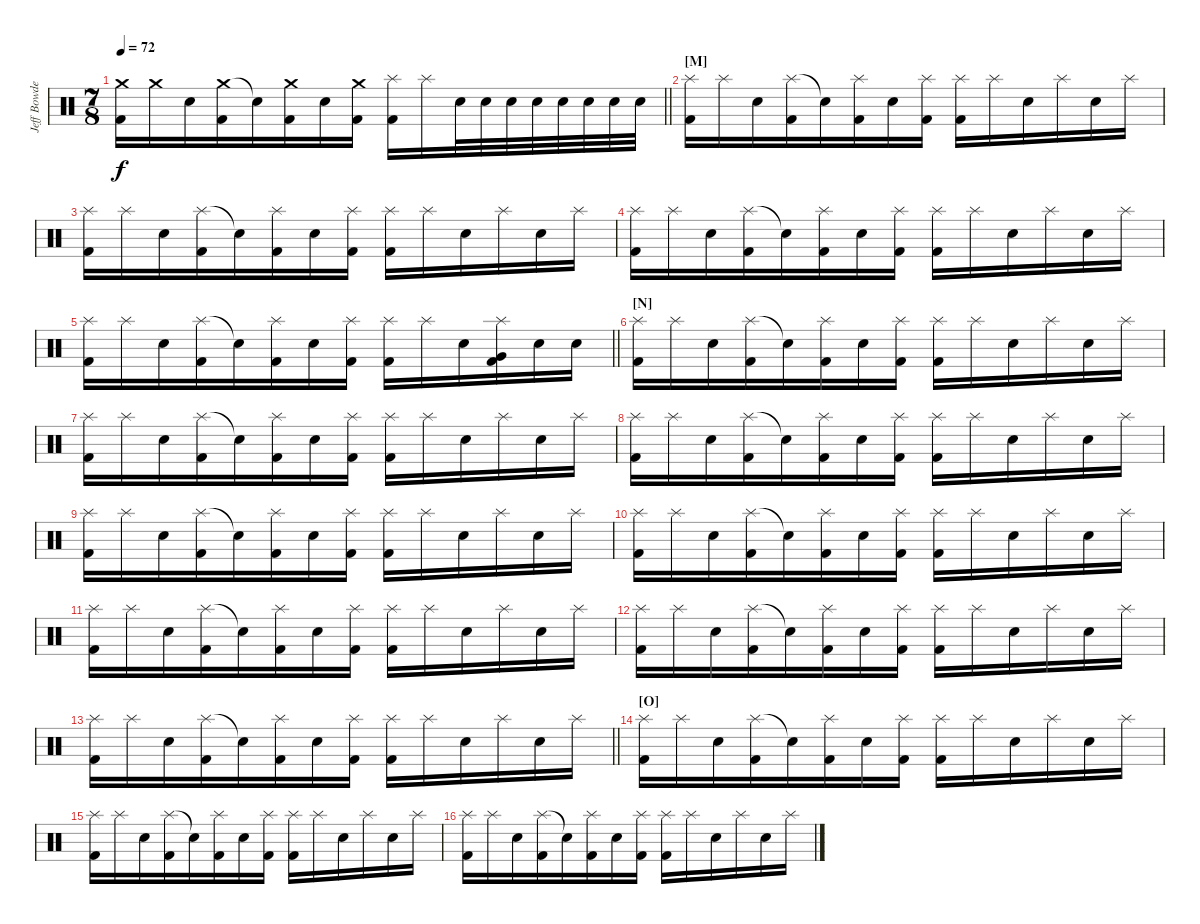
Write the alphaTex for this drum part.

\track ("Jeff Bowders" "Jeff Bowde") {instrument percussion}
\staff {score}
\articulation defaults
\ts (7 8)
\tempo 72
\clef neutral
\barLineRight lightlight
\ks aminor
("Crash medium (hit)" "Kick (hit) 2").16{dy f} "Crash medium (hit)".16 "Electric Snare (hit)".16 ("Crash medium (hit)" "Kick (hit) 2").16 "Snare (hit)"{t}.16 ("Crash medium (hit)" "Kick (hit) 2").16 "Electric Snare (hit)".16 ("Crash medium (hit)" "Kick (hit) 2").16 ("Splash (hit)" "Kick (hit) 2").16 "Splash (hit)".16 "Electric Snare (hit)".32 "Electric Snare (hit)".32 "Electric Snare (hit)".32 "Electric Snare (hit)".32 "Electric Snare (hit)".32 "Electric Snare (hit)".32 "Electric Snare (hit)".32 "Electric Snare (hit)".32 |
\section ("" "[M]")
("Splash (hit)" "Kick (hit) 2").16 "Splash (hit)".16 "Electric Snare (hit)".16 ("Splash (hit)" "Kick (hit) 2").16 "Snare (hit)"{t}.16 ("Splash (hit)" "Kick (hit) 2").16 "Electric Snare (hit)".16 ("Splash (hit)" "Kick (hit) 2").16 ("Splash (hit)" "Kick (hit) 2").16 "Splash (hit)".16 "Electric Snare (hit)".16 "Splash (hit)".16 "Electric Snare (hit)".16 "Splash (hit)".16 |
("Splash (hit)" "Kick (hit) 2").16 "Splash (hit)".16 "Electric Snare (hit)".16 ("Splash (hit)" "Kick (hit) 2").16 "Snare (hit)"{t}.16 ("Splash (hit)" "Kick (hit) 2").16 "Electric Snare (hit)".16 ("Splash (hit)" "Kick (hit) 2").16 ("Splash (hit)" "Kick (hit) 2").16 "Splash (hit)".16 "Electric Snare (hit)".16 "Splash (hit)".16 "Electric Snare (hit)".16 "Splash (hit)".16 |
("Splash (hit)" "Kick (hit) 2").16 "Splash (hit)".16 "Electric Snare (hit)".16 ("Splash (hit)" "Kick (hit) 2").16 "Snare (hit)"{t}.16 ("Splash (hit)" "Kick (hit) 2").16 "Electric Snare (hit)".16 ("Splash (hit)" "Kick (hit) 2").16 ("Splash (hit)" "Kick (hit) 2").16 "Splash (hit)".16 "Electric Snare (hit)".16 "Splash (hit)".16 "Electric Snare (hit)".16 "Splash (hit)".16 |
\barLineRight lightlight
("Splash (hit)" "Kick (hit) 2").16 "Splash (hit)".16 "Electric Snare (hit)".16 ("Splash (hit)" "Kick (hit) 2").16 "Snare (hit)"{t}.16 ("Splash (hit)" "Kick (hit) 2").16 "Electric Snare (hit)".16 ("Splash (hit)" "Kick (hit) 2").16 ("Splash (hit)" "Kick (hit) 2").16 "Splash (hit)".16 "Electric Snare (hit)".16 ("Splash (hit)" "Very Low Tom (hit)" "Kick (hit) 2").16 "Electric Snare (hit)".16 "Electric Snare (hit)".16 |
\section ("" "[N]")
("Splash (hit)" "Kick (hit) 2").16 "Splash (hit)".16 "Electric Snare (hit)".16 ("Splash (hit)" "Kick (hit) 2").16 "Snare (hit)"{t}.16 ("Splash (hit)" "Kick (hit) 2").16 "Electric Snare (hit)".16 ("Splash (hit)" "Kick (hit) 2").16 ("Splash (hit)" "Kick (hit) 2").16 "Splash (hit)".16 "Electric Snare (hit)".16 "Splash (hit)".16 "Electric Snare (hit)".16 "Splash (hit)".16 |
("Splash (hit)" "Kick (hit) 2").16 "Splash (hit)".16 "Electric Snare (hit)".16 ("Splash (hit)" "Kick (hit) 2").16 "Snare (hit)"{t}.16 ("Splash (hit)" "Kick (hit) 2").16 "Electric Snare (hit)".16 ("Splash (hit)" "Kick (hit) 2").16 ("Splash (hit)" "Kick (hit) 2").16 "Splash (hit)".16 "Electric Snare (hit)".16 "Splash (hit)".16 "Electric Snare (hit)".16 "Splash (hit)".16 |
("Splash (hit)" "Kick (hit) 2").16 "Splash (hit)".16 "Electric Snare (hit)".16 ("Splash (hit)" "Kick (hit) 2").16 "Snare (hit)"{t}.16 ("Splash (hit)" "Kick (hit) 2").16 "Electric Snare (hit)".16 ("Splash (hit)" "Kick (hit) 2").16 ("Splash (hit)" "Kick (hit) 2").16 "Splash (hit)".16 "Electric Snare (hit)".16 "Splash (hit)".16 "Electric Snare (hit)".16 "Splash (hit)".16 |
("Splash (hit)" "Kick (hit) 2").16 "Splash (hit)".16 "Electric Snare (hit)".16 ("Splash (hit)" "Kick (hit) 2").16 "Snare (hit)"{t}.16 ("Splash (hit)" "Kick (hit) 2").16 "Electric Snare (hit)".16 ("Splash (hit)" "Kick (hit) 2").16 ("Splash (hit)" "Kick (hit) 2").16 "Splash (hit)".16 "Electric Snare (hit)".16 "Splash (hit)".16 "Electric Snare (hit)".16 "Splash (hit)".16 |
("Splash (hit)" "Kick (hit) 2").16 "Splash (hit)".16 "Electric Snare (hit)".16 ("Splash (hit)" "Kick (hit) 2").16 "Snare (hit)"{t}.16 ("Splash (hit)" "Kick (hit) 2").16 "Electric Snare (hit)".16 ("Splash (hit)" "Kick (hit) 2").16 ("Splash (hit)" "Kick (hit) 2").16 "Splash (hit)".16 "Electric Snare (hit)".16 "Splash (hit)".16 "Electric Snare (hit)".16 "Splash (hit)".16 |
("Splash (hit)" "Kick (hit) 2").16 "Splash (hit)".16 "Electric Snare (hit)".16 ("Splash (hit)" "Kick (hit) 2").16 "Snare (hit)"{t}.16 ("Splash (hit)" "Kick (hit) 2").16 "Electric Snare (hit)".16 ("Splash (hit)" "Kick (hit) 2").16 ("Splash (hit)" "Kick (hit) 2").16 "Splash (hit)".16 "Electric Snare (hit)".16 "Splash (hit)".16 "Electric Snare (hit)".16 "Splash (hit)".16 |
("Splash (hit)" "Kick (hit) 2").16 "Splash (hit)".16 "Electric Snare (hit)".16 ("Splash (hit)" "Kick (hit) 2").16 "Snare (hit)"{t}.16 ("Splash (hit)" "Kick (hit) 2").16 "Electric Snare (hit)".16 ("Splash (hit)" "Kick (hit) 2").16 ("Splash (hit)" "Kick (hit) 2").16 "Splash (hit)".16 "Electric Snare (hit)".16 "Splash (hit)".16 "Electric Snare (hit)".16 "Splash (hit)".16 |
\barLineRight lightlight
("Splash (hit)" "Kick (hit) 2").16 "Splash (hit)".16 "Electric Snare (hit)".16 ("Splash (hit)" "Kick (hit) 2").16 "Snare (hit)"{t}.16 ("Splash (hit)" "Kick (hit) 2").16 "Electric Snare (hit)".16 ("Splash (hit)" "Kick (hit) 2").16 ("Splash (hit)" "Kick (hit) 2").16 "Splash (hit)".16 "Electric Snare (hit)".16 "Splash (hit)".16 "Electric Snare (hit)".16 "Splash (hit)".16 |
\section ("" "[O]")
("Splash (hit)" "Kick (hit) 2").16 "Splash (hit)".16 "Electric Snare (hit)".16 ("Splash (hit)" "Kick (hit) 2").16 "Snare (hit)"{t}.16 ("Splash (hit)" "Kick (hit) 2").16 "Electric Snare (hit)".16 ("Splash (hit)" "Kick (hit) 2").16 ("Splash (hit)" "Kick (hit) 2").16 "Splash (hit)".16 "Electric Snare (hit)".16 "Splash (hit)".16 "Electric Snare (hit)".16 "Splash (hit)".16 |
("Splash (hit)" "Kick (hit) 2").16 "Splash (hit)".16 "Electric Snare (hit)".16 ("Splash (hit)" "Kick (hit) 2").16 "Snare (hit)"{t}.16 ("Splash (hit)" "Kick (hit) 2").16 "Electric Snare (hit)".16 ("Splash (hit)" "Kick (hit) 2").16 ("Splash (hit)" "Kick (hit) 2").16 "Splash (hit)".16 "Electric Snare (hit)".16 "Splash (hit)".16 "Electric Snare (hit)".16 "Splash (hit)".16 |
("Splash (hit)" "Kick (hit) 2").16 "Splash (hit)".16 "Electric Snare (hit)".16 ("Splash (hit)" "Kick (hit) 2").16 "Snare (hit)"{t}.16 ("Splash (hit)" "Kick (hit) 2").16 "Electric Snare (hit)".16 ("Splash (hit)" "Kick (hit) 2").16 ("Splash (hit)" "Kick (hit) 2").16 "Splash (hit)".16 "Electric Snare (hit)".16 "Splash (hit)".16 "Electric Snare (hit)".16 "Splash (hit)".16
